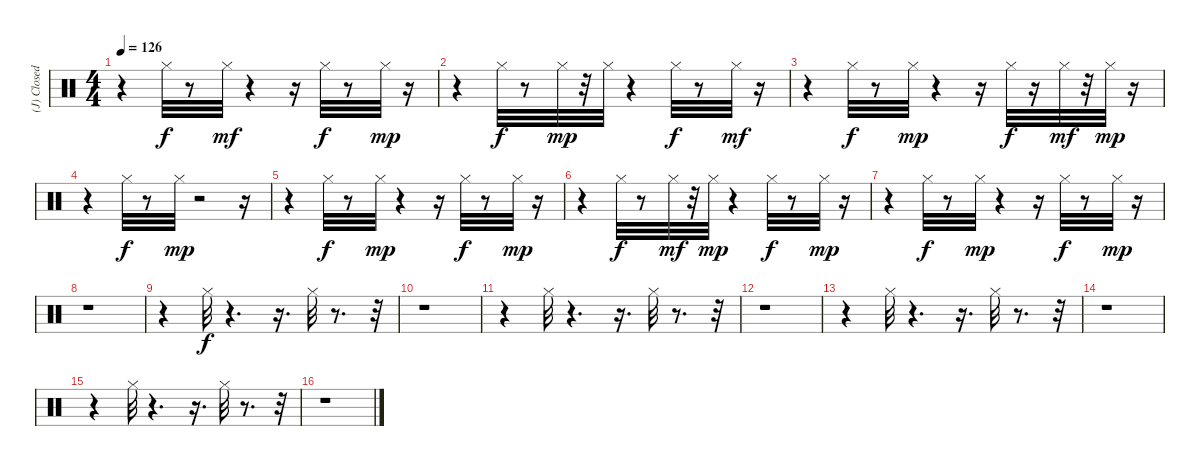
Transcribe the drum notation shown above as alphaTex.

\track ("(J) Closed Hi Hat" "(J) Closed") {instrument percussion}
\staff {score}
\articulation defaults
\ts (4 4)
\tempo 126
\clef neutral
\ks c
r.4{dy mp} "Hi-Hat (closed)".32{dy f} r.8 "Hi-Hat (closed)".32{dy mf} r.4 r.16 "Hi-Hat (closed)".32{dy f} r.8 "Hi-Hat (closed)".32{dy mp} r.16 |
r.4 "Hi-Hat (closed)".32{dy f} r.8 "Hi-Hat (closed)".32{dy mp} r.32 "Hi-Hat (closed)".32 r.4 "Hi-Hat (closed)".32{dy f} r.8 "Hi-Hat (closed)".32{dy mf} r.16 |
r.4 "Hi-Hat (closed)".32{dy f} r.8 "Hi-Hat (closed)".32{dy mp} r.4 r.16 "Hi-Hat (closed)".32{dy f} r.16 "Hi-Hat (closed)".32{dy mf} r.32 "Hi-Hat (closed)".32{dy mp} r.16 |
r.4 "Hi-Hat (closed)".32{dy f} r.8 "Hi-Hat (closed)".32{dy mp} r.2 r.16 |
r.4 "Hi-Hat (closed)".32{dy f} r.8 "Hi-Hat (closed)".32{dy mp} r.4 r.16 "Hi-Hat (closed)".32{dy f} r.8 "Hi-Hat (closed)".32{dy mp} r.16 |
r.4 "Hi-Hat (closed)".32{dy f} r.8 "Hi-Hat (closed)".32{dy mf} r.32 "Hi-Hat (closed)".32{dy mp} r.4 "Hi-Hat (closed)".32{dy f} r.8 "Hi-Hat (closed)".32{dy mp} r.16 |
r.4 "Hi-Hat (closed)".32{dy f} r.8 "Hi-Hat (closed)".32{dy mp} r.4 r.16 "Hi-Hat (closed)".32{dy f} r.8 "Hi-Hat (closed)".32{dy mp} r.16 |
r.1 |
r.4 "Hi-Hat (closed)".32{dy f} r.4{d} r.16{d} "Hi-Hat (closed)".32 r.8{d} r.32 |
r.1 |
r.4 "Hi-Hat (closed)".32 r.4{d} r.16{d} "Hi-Hat (closed)".32 r.8{d} r.32 |
r.1 |
r.4 "Hi-Hat (closed)".32 r.4{d} r.16{d} "Hi-Hat (closed)".32 r.8{d} r.32 |
r.1 |
r.4 "Hi-Hat (closed)".32 r.4{d} r.16{d} "Hi-Hat (closed)".32 r.8{d} r.32 |
r.1
